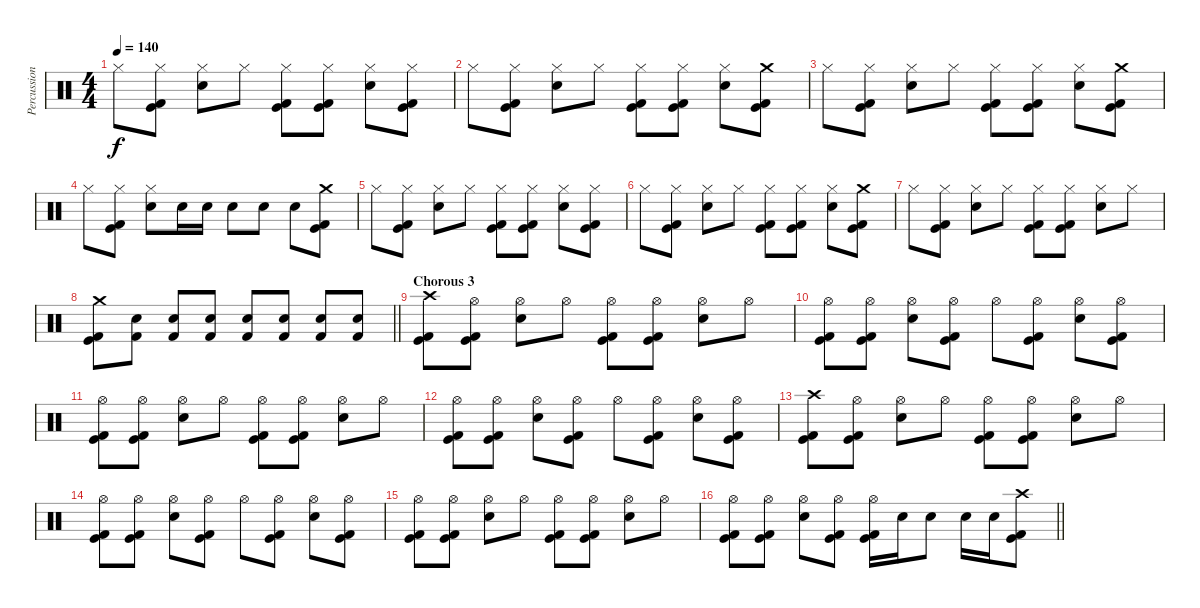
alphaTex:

\track ("Percussion" "Percussion") {instrument percussion}
\staff {score}
\articulation defaults
\ts (4 4)
\section ("" "")
\tempo 140
\clef neutral
\ks c "Hi-Hat (closed)".8{dy f}
("Hi-Hat (closed)" "Kick (hit)" "Kick (hit) 2").8 ("Hi-Hat (closed)" "Electric Snare (hit)").8 "Hi-Hat (closed)".8 ("Hi-Hat (closed)" "Kick (hit)" "Kick (hit) 2").8 ("Hi-Hat (closed)" "Kick (hit)" "Kick (hit) 2").8 ("Hi-Hat (closed)" "Electric Snare (hit)").8 ("Hi-Hat (closed)" "Kick (hit)" "Kick (hit) 2").8 |
"Hi-Hat (closed)".8 ("Hi-Hat (closed)" "Kick (hit)" "Kick (hit) 2").8 ("Hi-Hat (closed)" "Electric Snare (hit)").8 "Hi-Hat (closed)".8 ("Hi-Hat (closed)" "Kick (hit)" "Kick (hit) 2").8 ("Hi-Hat (closed)" "Kick (hit)" "Kick (hit) 2").8 ("Hi-Hat (closed)" "Electric Snare (hit)").8 ("Crash medium (hit)" "Kick (hit)" "Kick (hit) 2").8 |
"Hi-Hat (closed)".8 ("Hi-Hat (closed)" "Kick (hit)" "Kick (hit) 2").8 ("Hi-Hat (closed)" "Electric Snare (hit)").8 "Hi-Hat (closed)".8 ("Hi-Hat (closed)" "Kick (hit)" "Kick (hit) 2").8 ("Hi-Hat (closed)" "Kick (hit)" "Kick (hit) 2").8 ("Hi-Hat (closed)" "Electric Snare (hit)").8 ("Crash medium (hit)" "Kick (hit)" "Kick (hit) 2").8 |
"Hi-Hat (closed)".8 ("Hi-Hat (closed)" "Kick (hit)" "Kick (hit) 2").8 ("Hi-Hat (closed)" "Electric Snare (hit)").8 "Electric Snare (hit)".16 "Electric Snare (hit)".16 "Electric Snare (hit)".8 "Electric Snare (hit)".8 "Electric Snare (hit)".8 ("Crash medium (hit)" "Kick (hit)" "Kick (hit) 2").8 |
"Hi-Hat (closed)".8 ("Hi-Hat (closed)" "Kick (hit)" "Kick (hit) 2").8 ("Hi-Hat (closed)" "Electric Snare (hit)").8 "Hi-Hat (closed)".8 ("Hi-Hat (closed)" "Kick (hit)" "Kick (hit) 2").8 ("Hi-Hat (closed)" "Kick (hit)" "Kick (hit) 2").8 ("Hi-Hat (closed)" "Electric Snare (hit)").8 ("Hi-Hat (closed)" "Kick (hit)" "Kick (hit) 2").8 |
"Hi-Hat (closed)".8 ("Hi-Hat (closed)" "Kick (hit)" "Kick (hit) 2").8 ("Hi-Hat (closed)" "Electric Snare (hit)").8 "Hi-Hat (closed)".8 ("Hi-Hat (closed)" "Kick (hit)" "Kick (hit) 2").8 ("Hi-Hat (closed)" "Kick (hit)" "Kick (hit) 2").8 ("Hi-Hat (closed)" "Electric Snare (hit)").8 ("Crash medium (hit)" "Kick (hit)" "Kick (hit) 2").8 |
"Hi-Hat (closed)".8 ("Hi-Hat (closed)" "Kick (hit)" "Kick (hit) 2").8 ("Hi-Hat (closed)" "Electric Snare (hit)").8 "Hi-Hat (closed)".8 ("Hi-Hat (closed)" "Kick (hit)" "Kick (hit) 2").8 ("Hi-Hat (closed)" "Kick (hit)" "Kick (hit) 2").8 ("Hi-Hat (closed)" "Electric Snare (hit)").8 "Hi-Hat (closed)".8 |
\barLineRight lightlight
("Crash medium (hit)" "Kick (hit)" "Kick (hit) 2").8 ("Electric Snare (hit)" "Kick (hit) 2").8 ("Electric Snare (hit)" "Kick (hit) 2").8 ("Electric Snare (hit)" "Kick (hit) 2").8 ("Electric Snare (hit)" "Kick (hit) 2").8 ("Electric Snare (hit)" "Kick (hit) 2").8 ("Electric Snare (hit)" "Kick (hit) 2").8 ("Electric Snare (hit)" "Kick (hit) 2").8 |
\section ("" "Chorous 3")
("Crash high (hit)" "Kick (hit)" "Kick (hit) 2").8 ("Hi-Hat (open)" "Kick (hit)" "Kick (hit) 2").8 ("Hi-Hat (open)" "Electric Snare (hit)").8 "Hi-Hat (open)".8 ("Hi-Hat (open)" "Kick (hit)" "Kick (hit) 2").8 ("Hi-Hat (open)" "Kick (hit)" "Kick (hit) 2").8 ("Hi-Hat (open)" "Electric Snare (hit)").8 "Hi-Hat (open)".8 |
("Hi-Hat (open)" "Kick (hit)" "Kick (hit) 2").8 ("Hi-Hat (open)" "Kick (hit)" "Kick (hit) 2").8 ("Hi-Hat (open)" "Electric Snare (hit)").8 ("Hi-Hat (open)" "Kick (hit)" "Kick (hit) 2").8 "Hi-Hat (open)".8 ("Hi-Hat (open)" "Kick (hit)" "Kick (hit) 2").8 ("Hi-Hat (open)" "Electric Snare (hit)").8 ("Hi-Hat (open)" "Kick (hit)" "Kick (hit) 2").8 |
("Hi-Hat (open)" "Kick (hit)" "Kick (hit) 2").8 ("Hi-Hat (open)" "Kick (hit)" "Kick (hit) 2").8 ("Hi-Hat (open)" "Electric Snare (hit)").8 "Hi-Hat (open)".8 ("Hi-Hat (open)" "Kick (hit)" "Kick (hit) 2").8 ("Hi-Hat (open)" "Kick (hit)" "Kick (hit) 2").8 ("Hi-Hat (open)" "Electric Snare (hit)").8 "Hi-Hat (open)".8 |
("Hi-Hat (open)" "Kick (hit)" "Kick (hit) 2").8 ("Hi-Hat (open)" "Kick (hit)" "Kick (hit) 2").8 ("Hi-Hat (open)" "Electric Snare (hit)").8 ("Hi-Hat (open)" "Kick (hit)" "Kick (hit) 2").8 "Hi-Hat (open)".8 ("Hi-Hat (open)" "Kick (hit)" "Kick (hit) 2").8 ("Hi-Hat (open)" "Electric Snare (hit)").8 ("Hi-Hat (open)" "Kick (hit)" "Kick (hit) 2").8 |
("Crash high (hit)" "Kick (hit)" "Kick (hit) 2").8 ("Hi-Hat (open)" "Kick (hit)" "Kick (hit) 2").8 ("Hi-Hat (open)" "Electric Snare (hit)").8 "Hi-Hat (open)".8 ("Hi-Hat (open)" "Kick (hit)" "Kick (hit) 2").8 ("Hi-Hat (open)" "Kick (hit)" "Kick (hit) 2").8 ("Hi-Hat (open)" "Electric Snare (hit)").8 "Hi-Hat (open)".8 |
("Hi-Hat (open)" "Kick (hit)" "Kick (hit) 2").8 ("Hi-Hat (open)" "Kick (hit)" "Kick (hit) 2").8 ("Hi-Hat (open)" "Electric Snare (hit)").8 ("Hi-Hat (open)" "Kick (hit)" "Kick (hit) 2").8 "Hi-Hat (open)".8 ("Hi-Hat (open)" "Kick (hit)" "Kick (hit) 2").8 ("Hi-Hat (open)" "Electric Snare (hit)").8 ("Hi-Hat (open)" "Kick (hit)" "Kick (hit) 2").8 |
("Hi-Hat (open)" "Kick (hit)" "Kick (hit) 2").8 ("Hi-Hat (open)" "Kick (hit)" "Kick (hit) 2").8 ("Hi-Hat (open)" "Electric Snare (hit)").8 "Hi-Hat (open)".8 ("Hi-Hat (open)" "Kick (hit)" "Kick (hit) 2").8 ("Hi-Hat (open)" "Kick (hit)" "Kick (hit) 2").8 ("Hi-Hat (open)" "Electric Snare (hit)").8 "Hi-Hat (open)".8 |
\barLineRight lightlight
("Hi-Hat (open)" "Kick (hit)" "Kick (hit) 2").8 ("Hi-Hat (open)" "Kick (hit)" "Kick (hit) 2").8 ("Hi-Hat (open)" "Electric Snare (hit)").8 ("Hi-Hat (open)" "Kick (hit)" "Kick (hit) 2").8 ("Hi-Hat (open)" "Kick (hit)" "Kick (hit) 2").16 "Electric Snare (hit)".16 "Electric Snare (hit)".8 "Electric Snare (hit)".16 "Electric Snare (hit)".16 ("Crash high (hit)" "Kick (hit)" "Kick (hit) 2").8
